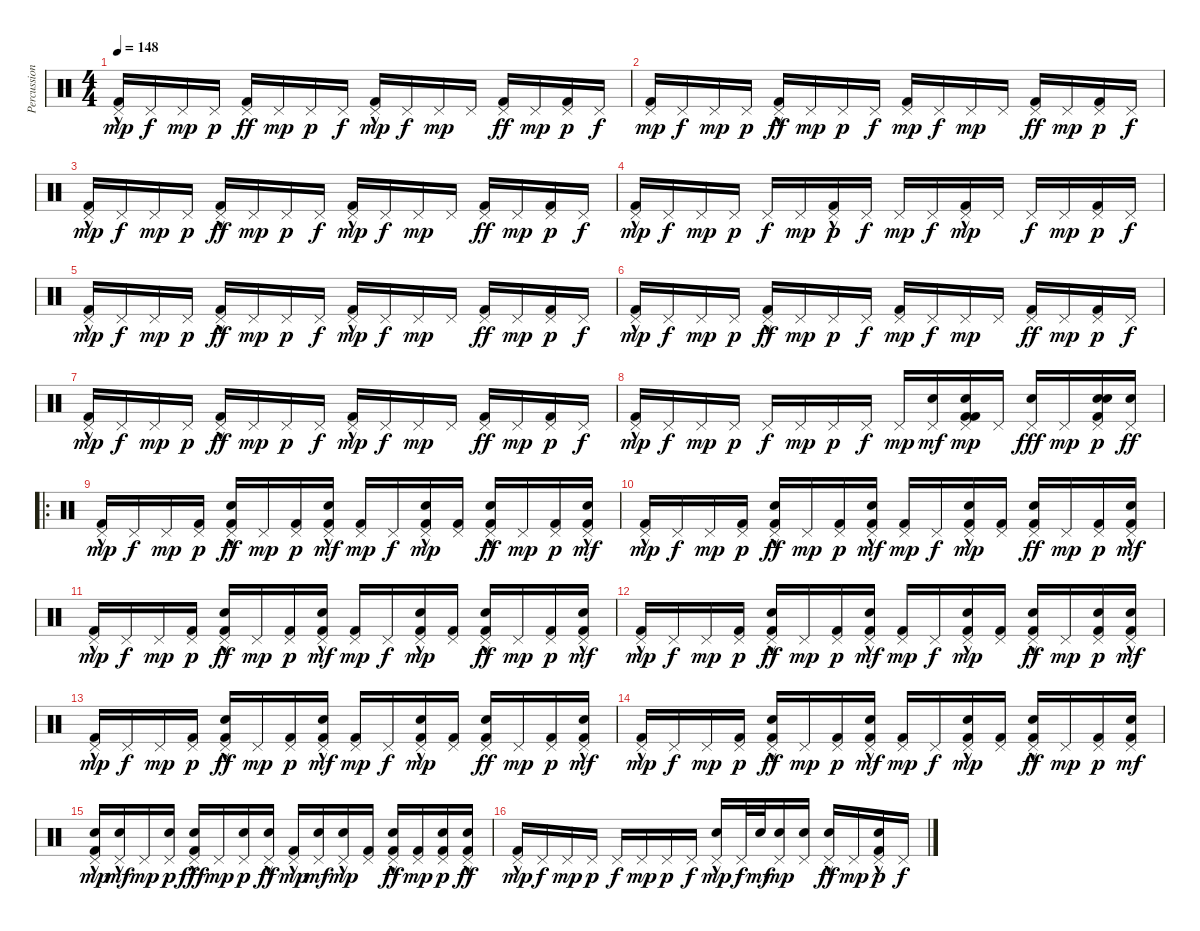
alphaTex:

\track ("Percussion" "Percussion") {instrument percussion}
\staff {score}
\articulation defaults
\ts (4 4)
\tempo 148
\clef neutral
\ks c
("Kick (hit) 2"{hac} "Pedal Hi-Hat (hit)").16{dy mp} "Pedal Hi-Hat (hit)".16{dy f} "Pedal Hi-Hat (hit)".16{dy mp} "Pedal Hi-Hat (hit)".16{dy p} ("Kick (hit) 2" "Pedal Hi-Hat (hit)").16{dy ff} "Pedal Hi-Hat (hit)".16{dy mp} "Pedal Hi-Hat (hit)".16{dy p} "Pedal Hi-Hat (hit)".16{dy f} ("Kick (hit) 2"{hac} "Pedal Hi-Hat (hit)").16{dy mp} "Pedal Hi-Hat (hit)".16{dy f} "Pedal Hi-Hat (hit)".16{dy mp} "Pedal Hi-Hat (hit)".16 ("Kick (hit) 2" "Pedal Hi-Hat (hit)").16{dy ff} "Pedal Hi-Hat (hit)".16{dy mp} ("Kick (hit) 2" "Pedal Hi-Hat (hit)").16{dy p} "Pedal Hi-Hat (hit)".16{dy f} |
("Kick (hit) 2" "Pedal Hi-Hat (hit)").16{dy mp} "Pedal Hi-Hat (hit)".16{dy f} "Pedal Hi-Hat (hit)".16{dy mp} "Pedal Hi-Hat (hit)".16{dy p} ("Kick (hit) 2"{hac} "Pedal Hi-Hat (hit)").16{dy ff} "Pedal Hi-Hat (hit)".16{dy mp} "Pedal Hi-Hat (hit)".16{dy p} "Pedal Hi-Hat (hit)".16{dy f} ("Kick (hit) 2" "Pedal Hi-Hat (hit)").16{dy mp} "Pedal Hi-Hat (hit)".16{dy f} "Pedal Hi-Hat (hit)".16{dy mp} "Pedal Hi-Hat (hit)".16 ("Kick (hit) 2" "Pedal Hi-Hat (hit)").16{dy ff} "Pedal Hi-Hat (hit)".16{dy mp} ("Kick (hit) 2" "Pedal Hi-Hat (hit)").16{dy p} "Pedal Hi-Hat (hit)".16{dy f} |
("Kick (hit) 2"{hac} "Pedal Hi-Hat (hit)").16{dy mp} "Pedal Hi-Hat (hit)".16{dy f} "Pedal Hi-Hat (hit)".16{dy mp} "Pedal Hi-Hat (hit)".16{dy p} ("Kick (hit) 2"{hac} "Pedal Hi-Hat (hit)").16{dy ff} "Pedal Hi-Hat (hit)".16{dy mp} "Pedal Hi-Hat (hit)".16{dy p} "Pedal Hi-Hat (hit)".16{dy f} ("Kick (hit) 2"{hac} "Pedal Hi-Hat (hit)").16{dy mp} "Pedal Hi-Hat (hit)".16{dy f} "Pedal Hi-Hat (hit)".16{dy mp} "Pedal Hi-Hat (hit)".16 ("Kick (hit) 2" "Pedal Hi-Hat (hit)").16{dy ff} "Pedal Hi-Hat (hit)".16{dy mp} ("Kick (hit) 2" "Pedal Hi-Hat (hit)").16{dy p} "Pedal Hi-Hat (hit)".16{dy f} |
("Kick (hit) 2"{hac} "Pedal Hi-Hat (hit)").16{dy mp} "Pedal Hi-Hat (hit)".16{dy f} "Pedal Hi-Hat (hit)".16{dy mp} "Pedal Hi-Hat (hit)".16{dy p} "Pedal Hi-Hat (hit)".16{dy f} "Pedal Hi-Hat (hit)".16{dy mp} ("Kick (hit) 2"{hac} "Pedal Hi-Hat (hit)").16{dy p} "Pedal Hi-Hat (hit)".16{dy f} "Pedal Hi-Hat (hit)".16{dy mp} "Pedal Hi-Hat (hit)".16{dy f} ("Kick (hit) 2"{hac} "Pedal Hi-Hat (hit)").16{dy mp} "Pedal Hi-Hat (hit)".16 "Pedal Hi-Hat (hit)".16{dy f} "Pedal Hi-Hat (hit)".16{dy mp} ("Kick (hit) 2" "Pedal Hi-Hat (hit)").16{dy p} "Pedal Hi-Hat (hit)".16{dy f} |
("Kick (hit) 2"{hac} "Pedal Hi-Hat (hit)").16{dy mp} "Pedal Hi-Hat (hit)".16{dy f} "Pedal Hi-Hat (hit)".16{dy mp} "Pedal Hi-Hat (hit)".16{dy p} ("Kick (hit) 2"{hac} "Pedal Hi-Hat (hit)").16{dy ff} "Pedal Hi-Hat (hit)".16{dy mp} "Pedal Hi-Hat (hit)".16{dy p} "Pedal Hi-Hat (hit)".16{dy f} ("Kick (hit) 2"{hac} "Pedal Hi-Hat (hit)").16{dy mp} "Pedal Hi-Hat (hit)".16{dy f} "Pedal Hi-Hat (hit)".16{dy mp} "Pedal Hi-Hat (hit)".16 ("Kick (hit) 2" "Pedal Hi-Hat (hit)").16{dy ff} "Pedal Hi-Hat (hit)".16{dy mp} ("Kick (hit) 2" "Pedal Hi-Hat (hit)").16{dy p} "Pedal Hi-Hat (hit)".16{dy f} |
("Kick (hit) 2"{hac} "Pedal Hi-Hat (hit)").16{dy mp} "Pedal Hi-Hat (hit)".16{dy f} "Pedal Hi-Hat (hit)".16{dy mp} "Pedal Hi-Hat (hit)".16{dy p} ("Kick (hit) 2"{hac} "Pedal Hi-Hat (hit)").16{dy ff} "Pedal Hi-Hat (hit)".16{dy mp} "Pedal Hi-Hat (hit)".16{dy p} "Pedal Hi-Hat (hit)".16{dy f} ("Kick (hit) 2" "Pedal Hi-Hat (hit)").16{dy mp} "Pedal Hi-Hat (hit)".16{dy f} "Pedal Hi-Hat (hit)".16{dy mp} "Pedal Hi-Hat (hit)".16 ("Kick (hit) 2" "Pedal Hi-Hat (hit)").16{dy ff} "Pedal Hi-Hat (hit)".16{dy mp} ("Kick (hit) 2" "Pedal Hi-Hat (hit)").16{dy p} "Pedal Hi-Hat (hit)".16{dy f} |
("Kick (hit) 2"{hac} "Pedal Hi-Hat (hit)").16{dy mp} "Pedal Hi-Hat (hit)".16{dy f} "Pedal Hi-Hat (hit)".16{dy mp} "Pedal Hi-Hat (hit)".16{dy p} ("Kick (hit) 2"{hac} "Pedal Hi-Hat (hit)").16{dy ff} "Pedal Hi-Hat (hit)".16{dy mp} "Pedal Hi-Hat (hit)".16{dy p} "Pedal Hi-Hat (hit)".16{dy f} ("Kick (hit) 2"{hac} "Pedal Hi-Hat (hit)").16{dy mp} "Pedal Hi-Hat (hit)".16{dy f} "Pedal Hi-Hat (hit)".16{dy mp} "Pedal Hi-Hat (hit)".16 ("Kick (hit) 2" "Pedal Hi-Hat (hit)").16{dy ff} "Pedal Hi-Hat (hit)".16{dy mp} ("Kick (hit) 2" "Pedal Hi-Hat (hit)").16{dy p} "Pedal Hi-Hat (hit)".16{dy f} |
("Kick (hit) 2"{hac} "Pedal Hi-Hat (hit)").16{dy mp} "Pedal Hi-Hat (hit)".16{dy f} "Pedal Hi-Hat (hit)".16{dy mp} "Pedal Hi-Hat (hit)".16{dy p} "Pedal Hi-Hat (hit)".16{dy f} "Pedal Hi-Hat (hit)".16{dy mp} "Pedal Hi-Hat (hit)".16{dy p} "Pedal Hi-Hat (hit)".16{dy f} "Pedal Hi-Hat (hit)".16{dy mp} ("Electric Snare (hit)" "Pedal Hi-Hat (hit)").16{dy mf} ("Kick (hit) 2" "Electric Snare (hit)" "Kick (hit) 2" "Pedal Hi-Hat (hit)").16{dy mp} "Pedal Hi-Hat (hit)".16 ("Pedal Hi-Hat (hit)" "Electric Snare (hit)").16{dy fff} "Pedal Hi-Hat (hit)".16{dy mp} ("Electric Snare (hit)" "Electric Snare (hit)" "Kick (hit) 2" "Pedal Hi-Hat (hit)").16{dy p} ("Electric Snare (hit)" "Pedal Hi-Hat (hit)").16{dy ff} |
\ro
("Kick (hit) 2"{hac} "Pedal Hi-Hat (hit)").16{dy mp} "Pedal Hi-Hat (hit)".16{dy f} "Pedal Hi-Hat (hit)".16{dy mp} ("Kick (hit) 2" "Pedal Hi-Hat (hit)").16{dy p} ("Electric Snare (hit)"{hac} "Kick (hit) 2" "Pedal Hi-Hat (hit)").16{dy ff} "Pedal Hi-Hat (hit)".16{dy mp} ("Kick (hit) 2" "Pedal Hi-Hat (hit)").16{dy p} ("Electric Snare (hit)"{hac} "Kick (hit) 2" "Pedal Hi-Hat (hit)").16{dy mf} ("Kick (hit) 2" "Pedal Hi-Hat (hit)").16{dy mp} "Pedal Hi-Hat (hit)".16{dy f} ("Electric Snare (hit)"{hac} "Kick (hit) 2" "Pedal Hi-Hat (hit)").16{dy mp} ("Kick (hit) 2" "Pedal Hi-Hat (hit)").16 ("Electric Snare (hit)"{hac} "Kick (hit) 2" "Pedal Hi-Hat (hit)").16{dy ff} "Pedal Hi-Hat (hit)".16{dy mp} ("Kick (hit) 2" "Pedal Hi-Hat (hit)").16{dy p} ("Electric Snare (hit)"{hac} "Kick (hit) 2" "Pedal Hi-Hat (hit)").16{dy mf} |
("Kick (hit) 2"{hac} "Pedal Hi-Hat (hit)").16{dy mp} "Pedal Hi-Hat (hit)".16{dy f} "Pedal Hi-Hat (hit)".16{dy mp} ("Kick (hit) 2" "Pedal Hi-Hat (hit)").16{dy p} ("Electric Snare (hit)"{hac} "Kick (hit) 2" "Pedal Hi-Hat (hit)").16{dy ff} "Pedal Hi-Hat (hit)".16{dy mp} ("Kick (hit) 2" "Pedal Hi-Hat (hit)").16{dy p} ("Electric Snare (hit)"{hac} "Kick (hit) 2" "Pedal Hi-Hat (hit)").16{dy mf} ("Kick (hit) 2" "Pedal Hi-Hat (hit)").16{dy mp} "Pedal Hi-Hat (hit)".16{dy f} ("Electric Snare (hit)"{hac} "Kick (hit) 2" "Pedal Hi-Hat (hit)").16{dy mp} ("Kick (hit) 2" "Pedal Hi-Hat (hit)").16 ("Electric Snare (hit)" "Kick (hit) 2" "Pedal Hi-Hat (hit)").16{dy ff} "Pedal Hi-Hat (hit)".16{dy mp} ("Kick (hit) 2" "Pedal Hi-Hat (hit)").16{dy p} ("Electric Snare (hit)"{hac} "Kick (hit) 2" "Pedal Hi-Hat (hit)").16{dy mf} |
("Kick (hit) 2"{hac} "Pedal Hi-Hat (hit)").16{dy mp} "Pedal Hi-Hat (hit)".16{dy f} "Pedal Hi-Hat (hit)".16{dy mp} ("Kick (hit) 2" "Pedal Hi-Hat (hit)").16{dy p} ("Electric Snare (hit)"{hac} "Kick (hit) 2" "Pedal Hi-Hat (hit)").16{dy ff} "Pedal Hi-Hat (hit)".16{dy mp} ("Kick (hit) 2" "Pedal Hi-Hat (hit)").16{dy p} ("Electric Snare (hit)"{hac} "Kick (hit) 2" "Pedal Hi-Hat (hit)").16{dy mf} ("Kick (hit) 2" "Pedal Hi-Hat (hit)").16{dy mp} "Pedal Hi-Hat (hit)".16{dy f} ("Electric Snare (hit)"{hac} "Kick (hit) 2" "Pedal Hi-Hat (hit)").16{dy mp} ("Kick (hit) 2" "Pedal Hi-Hat (hit)").16 ("Electric Snare (hit)"{hac} "Kick (hit) 2" "Pedal Hi-Hat (hit)").16{dy ff} "Pedal Hi-Hat (hit)".16{dy mp} ("Kick (hit) 2" "Pedal Hi-Hat (hit)").16{dy p} ("Electric Snare (hit)"{hac} "Kick (hit) 2" "Pedal Hi-Hat (hit)").16{dy mf} |
("Kick (hit) 2"{hac} "Pedal Hi-Hat (hit)").16{dy mp} "Pedal Hi-Hat (hit)".16{dy f} "Pedal Hi-Hat (hit)".16{dy mp} ("Kick (hit) 2" "Pedal Hi-Hat (hit)").16{dy p} ("Electric Snare (hit)"{hac} "Kick (hit) 2" "Pedal Hi-Hat (hit)").16{dy ff} "Pedal Hi-Hat (hit)".16{dy mp} ("Kick (hit) 2" "Pedal Hi-Hat (hit)").16{dy p} ("Electric Snare (hit)"{hac} "Kick (hit) 2" "Pedal Hi-Hat (hit)").16{dy mf} ("Kick (hit) 2" "Pedal Hi-Hat (hit)").16{dy mp} "Pedal Hi-Hat (hit)".16{dy f} ("Electric Snare (hit)"{hac} "Kick (hit) 2" "Pedal Hi-Hat (hit)").16{dy mp} ("Kick (hit) 2" "Pedal Hi-Hat (hit)").16 ("Electric Snare (hit)"{hac} "Kick (hit) 2" "Pedal Hi-Hat (hit)").16{dy ff} "Pedal Hi-Hat (hit)".16{dy mp} ("Electric Snare (hit)" "Kick (hit) 2" "Pedal Hi-Hat (hit)").16{dy p} ("Electric Snare (hit)"{hac} "Kick (hit) 2" "Pedal Hi-Hat (hit)").16{dy mf} |
("Kick (hit) 2"{hac} "Pedal Hi-Hat (hit)").16{dy mp} "Pedal Hi-Hat (hit)".16{dy f} "Pedal Hi-Hat (hit)".16{dy mp} ("Kick (hit) 2" "Pedal Hi-Hat (hit)").16{dy p} ("Electric Snare (hit)"{hac} "Kick (hit) 2" "Pedal Hi-Hat (hit)").16{dy ff} "Pedal Hi-Hat (hit)".16{dy mp} ("Kick (hit) 2" "Pedal Hi-Hat (hit)").16{dy p} ("Electric Snare (hit)"{hac} "Kick (hit) 2" "Pedal Hi-Hat (hit)").16{dy mf} ("Kick (hit) 2" "Pedal Hi-Hat (hit)").16{dy mp} "Pedal Hi-Hat (hit)".16{dy f} ("Electric Snare (hit)"{hac} "Kick (hit) 2" "Pedal Hi-Hat (hit)").16{dy mp} ("Kick (hit) 2" "Pedal Hi-Hat (hit)").16 ("Electric Snare (hit)" "Kick (hit) 2" "Pedal Hi-Hat (hit)").16{dy ff} "Pedal Hi-Hat (hit)".16{dy mp} ("Kick (hit) 2" "Pedal Hi-Hat (hit)").16{dy p} ("Electric Snare (hit)"{hac} "Kick (hit) 2" "Pedal Hi-Hat (hit)").16{dy mf} |
("Kick (hit) 2"{hac} "Pedal Hi-Hat (hit)").16{dy mp} "Pedal Hi-Hat (hit)".16{dy f} "Pedal Hi-Hat (hit)".16{dy mp} ("Kick (hit) 2" "Pedal Hi-Hat (hit)").16{dy p} ("Electric Snare (hit)"{hac} "Kick (hit) 2" "Pedal Hi-Hat (hit)").16{dy ff} "Pedal Hi-Hat (hit)".16{dy mp} ("Kick (hit) 2" "Pedal Hi-Hat (hit)").16{dy p} ("Electric Snare (hit)"{hac} "Kick (hit) 2" "Pedal Hi-Hat (hit)").16{dy mf} ("Kick (hit) 2" "Pedal Hi-Hat (hit)").16{dy mp} "Pedal Hi-Hat (hit)".16{dy f} ("Electric Snare (hit)"{hac} "Kick (hit) 2" "Pedal Hi-Hat (hit)").16{dy mp} ("Kick (hit) 2" "Pedal Hi-Hat (hit)").16 ("Electric Snare (hit)"{hac} "Kick (hit) 2" "Pedal Hi-Hat (hit)").16{dy ff} "Pedal Hi-Hat (hit)".16{dy mp} ("Kick (hit) 2" "Pedal Hi-Hat (hit)").16{dy p} ("Electric Snare (hit)" "Kick (hit) 2" "Pedal Hi-Hat (hit)").16{dy mf} |
("Electric Snare (hit)" "Kick (hit) 2"{hac} "Pedal Hi-Hat (hit)").16{dy mp} ("Electric Snare (hit)"{hac} "Pedal Hi-Hat (hit)").16{dy mf} "Pedal Hi-Hat (hit)".16{dy mp} ("Electric Snare (hit)" "Pedal Hi-Hat (hit)").16{dy p} ("Kick (hit) 2"{hac} "Electric Snare (hit)"{hac} "Pedal Hi-Hat (hit)").16{dy fff} "Pedal Hi-Hat (hit)".16{dy mp} ("Electric Snare (hit)" "Pedal Hi-Hat (hit)").16{dy p} ("Electric Snare (hit)"{hac} "Pedal Hi-Hat (hit)").16{dy ff} ("Kick (hit) 2"{hac} "Pedal Hi-Hat (hit)").16{dy mp} ("Electric Snare (hit)" "Pedal Hi-Hat (hit)").16{dy mf} ("Electric Snare (hit)"{hac} "Pedal Hi-Hat (hit)").16{dy mp} ("Kick (hit) 2" "Pedal Hi-Hat (hit)").16 ("Electric Snare (hit)"{hac} "Kick (hit) 2" "Pedal Hi-Hat (hit)").16{dy ff} ("Kick (hit) 2" "Pedal Hi-Hat (hit)").16{dy mp} ("Electric Snare (hit)" "Kick (hit) 2" "Pedal Hi-Hat (hit)").16{dy p} ("Electric Snare (hit)"{hac} "Kick (hit) 2" "Pedal Hi-Hat (hit)").16{dy ff} |
("Kick (hit) 2"{hac} "Pedal Hi-Hat (hit)").16{dy mp} "Pedal Hi-Hat (hit)".16{dy f} "Pedal Hi-Hat (hit)".16{dy mp} "Pedal Hi-Hat (hit)".16{dy p} "Pedal Hi-Hat (hit)".16{dy f} "Pedal Hi-Hat (hit)".16{dy mp} "Pedal Hi-Hat (hit)".16{dy p} "Pedal Hi-Hat (hit)".16{dy f} ("Electric Snare (hit)"{hac} "Pedal Hi-Hat (hit)").16{dy mp} "Pedal Hi-Hat (hit)".32{dy f} "Electric Snare (hit)".32{dy mf} ("Electric Snare (hit)" "Pedal Hi-Hat (hit)").16{dy mp} ("Electric Snare (hit)" "Pedal Hi-Hat (hit)").16 ("Electric Snare (hit)"{hac} "Pedal Hi-Hat (hit)").16{dy ff} "Pedal Hi-Hat (hit)".16{dy mp} ("Electric Snare (hit)"{hac} "Kick (hit) 2" "Pedal Hi-Hat (hit)").16{dy p} "Pedal Hi-Hat (hit)".16{dy f}
